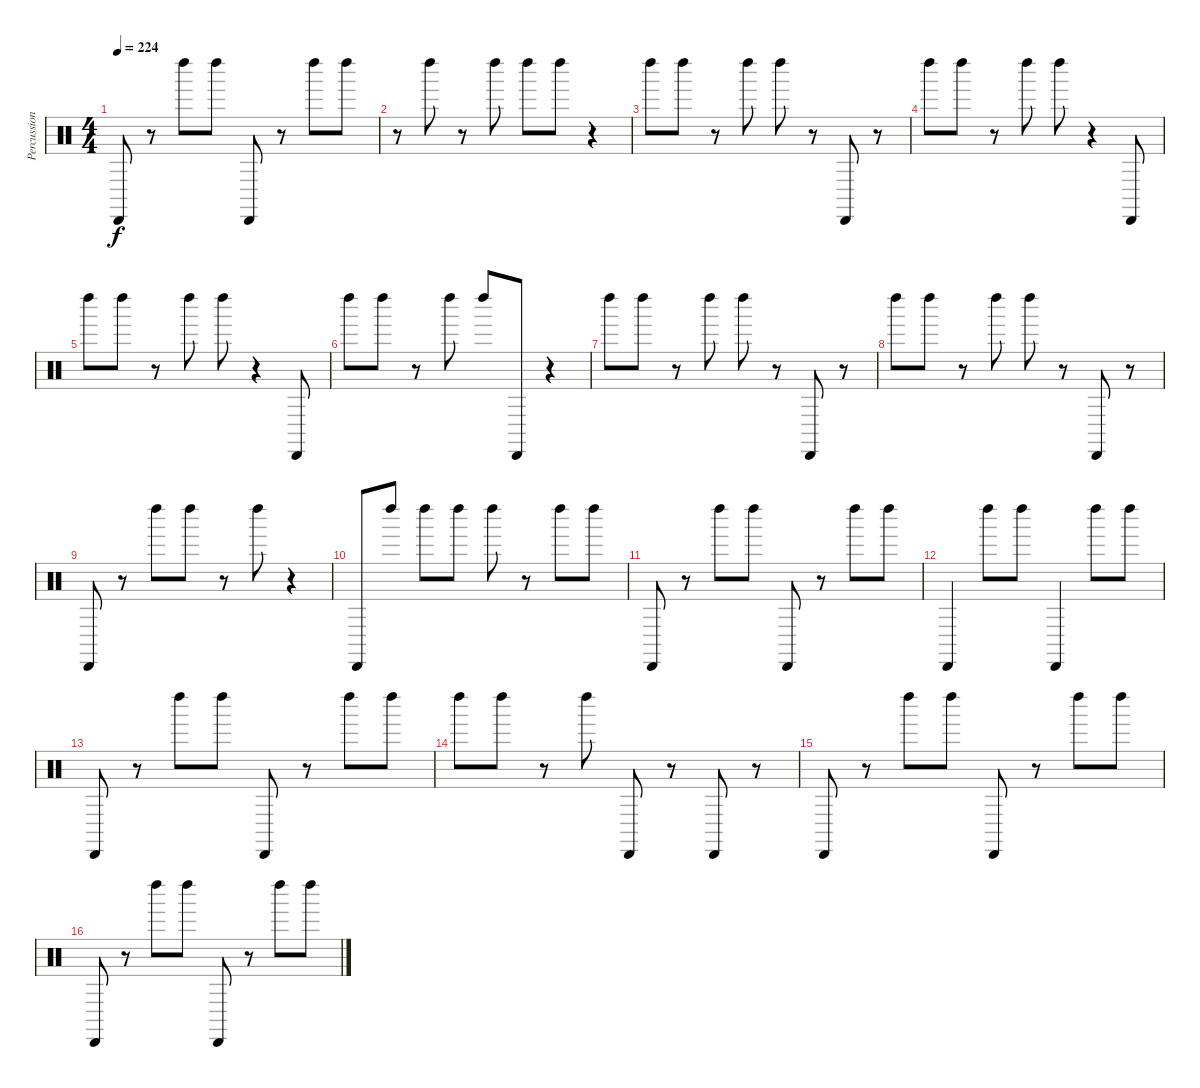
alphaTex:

\track ("Percussion" "Percussion") {solo instrument percussion}
\staff {score}
\articulation defaults
\ts (4 4)
\tempo 224
\clef neutral
\ks c "Cabasa (hit)".8{dy f}
r.8 "Left Maraca (hit)".8 "Left Maraca (hit)".8 "Cabasa (hit)".8 r.8 "Left Maraca (hit)".8 "Left Maraca (hit)".8 |
r.8 "Left Maraca (hit)".8 r.8 "Left Maraca (hit)".8 "Left Maraca (hit)".8 "Left Maraca (hit)".8 r.4 |
"Left Maraca (hit)".8 "Left Maraca (hit)".8 r.8 "Left Maraca (hit)".8 "Left Maraca (hit)".8 r.8 "Cabasa (hit)".8 r.8 |
"Left Maraca (hit)".8 "Left Maraca (hit)".8 r.8 "Left Maraca (hit)".8 "Left Maraca (hit)".8 r.4 "Cabasa (hit)".8 |
"Left Maraca (hit)".8 "Left Maraca (hit)".8 r.8 "Left Maraca (hit)".8 "Left Maraca (hit)".8 r.4 "Cabasa (hit)".8 |
"Left Maraca (hit)".8 "Left Maraca (hit)".8 r.8 "Left Maraca (hit)".8 "Left Maraca (hit)".8 "Cabasa (hit)".8 r.4 |
"Left Maraca (hit)".8 "Left Maraca (hit)".8 r.8 "Left Maraca (hit)".8 "Left Maraca (hit)".8 r.8 "Cabasa (hit)".8 r.8 |
"Left Maraca (hit)".8 "Left Maraca (hit)".8 r.8 "Left Maraca (hit)".8 "Left Maraca (hit)".8 r.8 "Cabasa (hit)".8 r.8 |
"Cabasa (hit)".8 r.8 "Left Maraca (hit)".8 "Left Maraca (hit)".8 r.8 "Left Maraca (hit)".8 r.4 |
"Cabasa (hit)".8 "Left Maraca (hit)".8 "Left Maraca (hit)".8 "Left Maraca (hit)".8 "Left Maraca (hit)".8 r.8 "Left Maraca (hit)".8 "Left Maraca (hit)".8 |
"Cabasa (hit)".8 r.8 "Left Maraca (hit)".8 "Left Maraca (hit)".8 "Cabasa (hit)".8 r.8 "Left Maraca (hit)".8 "Left Maraca (hit)".8 |
"Cabasa (hit)".4 "Left Maraca (hit)".8 "Left Maraca (hit)".8 "Cabasa (hit)".4 "Left Maraca (hit)".8 "Left Maraca (hit)".8 |
"Cabasa (hit)".8 r.8 "Left Maraca (hit)".8 "Left Maraca (hit)".8 "Cabasa (hit)".8 r.8 "Left Maraca (hit)".8 "Left Maraca (hit)".8 |
"Left Maraca (hit)".8 "Left Maraca (hit)".8 r.8 "Left Maraca (hit)".8 "Cabasa (hit)".8 r.8 "Cabasa (hit)".8 r.8 |
"Cabasa (hit)".8 r.8 "Left Maraca (hit)".8 "Left Maraca (hit)".8 "Cabasa (hit)".8 r.8 "Left Maraca (hit)".8 "Left Maraca (hit)".8 |
"Cabasa (hit)".8 r.8 "Left Maraca (hit)".8 "Left Maraca (hit)".8 "Cabasa (hit)".8 r.8 "Left Maraca (hit)".8 "Left Maraca (hit)".8
